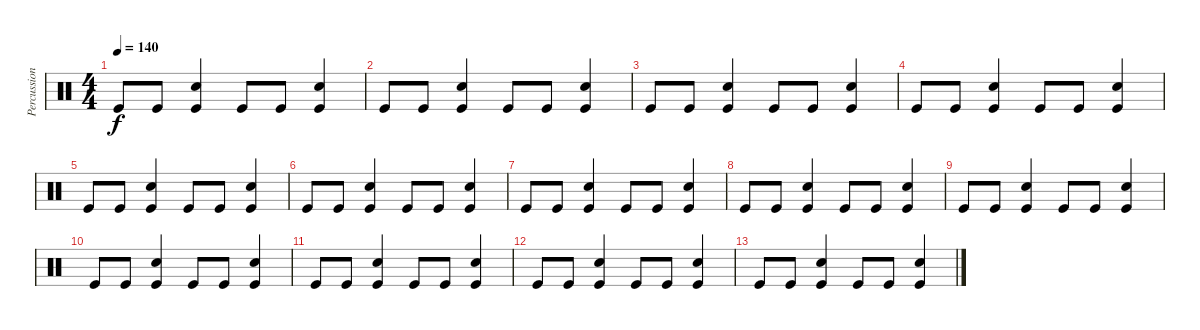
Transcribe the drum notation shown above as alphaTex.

\track ("Percussions" "Percussion") {instrument percussion}
\staff {score}
\articulation defaults
\ts (4 4)
\tempo 140
\clef neutral
\ks c "Kick (hit)".8{dy f} "Kick (hit)".8
("Kick (hit)" "Electric Snare (hit)").4 "Kick (hit)".8 "Kick (hit)".8 ("Kick (hit)" "Electric Snare (hit)").4 |
"Kick (hit)".8 "Kick (hit)".8 ("Kick (hit)" "Electric Snare (hit)").4 "Kick (hit)".8 "Kick (hit)".8 ("Kick (hit)" "Electric Snare (hit)").4 |
"Kick (hit)".8 "Kick (hit)".8 ("Kick (hit)" "Electric Snare (hit)").4 "Kick (hit)".8 "Kick (hit)".8 ("Kick (hit)" "Electric Snare (hit)").4 |
"Kick (hit)".8 "Kick (hit)".8 ("Kick (hit)" "Electric Snare (hit)").4 "Kick (hit)".8 "Kick (hit)".8 ("Kick (hit)" "Electric Snare (hit)").4 |
"Kick (hit)".8 "Kick (hit)".8 ("Kick (hit)" "Electric Snare (hit)").4 "Kick (hit)".8 "Kick (hit)".8 ("Kick (hit)" "Electric Snare (hit)").4 |
"Kick (hit)".8 "Kick (hit)".8 ("Kick (hit)" "Electric Snare (hit)").4 "Kick (hit)".8 "Kick (hit)".8 ("Kick (hit)" "Electric Snare (hit)").4 |
"Kick (hit)".8 "Kick (hit)".8 ("Kick (hit)" "Electric Snare (hit)").4 "Kick (hit)".8 "Kick (hit)".8 ("Kick (hit)" "Electric Snare (hit)").4 |
"Kick (hit)".8 "Kick (hit)".8 ("Kick (hit)" "Electric Snare (hit)").4 "Kick (hit)".8 "Kick (hit)".8 ("Kick (hit)" "Electric Snare (hit)").4 |
"Kick (hit)".8 "Kick (hit)".8 ("Kick (hit)" "Electric Snare (hit)").4 "Kick (hit)".8 "Kick (hit)".8 ("Kick (hit)" "Electric Snare (hit)").4 |
"Kick (hit)".8 "Kick (hit)".8 ("Kick (hit)" "Electric Snare (hit)").4 "Kick (hit)".8 "Kick (hit)".8 ("Kick (hit)" "Electric Snare (hit)").4 |
"Kick (hit)".8 "Kick (hit)".8 ("Kick (hit)" "Electric Snare (hit)").4 "Kick (hit)".8 "Kick (hit)".8 ("Kick (hit)" "Electric Snare (hit)").4 |
"Kick (hit)".8 "Kick (hit)".8 ("Kick (hit)" "Electric Snare (hit)").4 "Kick (hit)".8 "Kick (hit)".8 ("Kick (hit)" "Electric Snare (hit)").4 |
"Kick (hit)".8 "Kick (hit)".8 ("Kick (hit)" "Electric Snare (hit)").4 "Kick (hit)".8 "Kick (hit)".8 ("Kick (hit)" "Electric Snare (hit)").4
